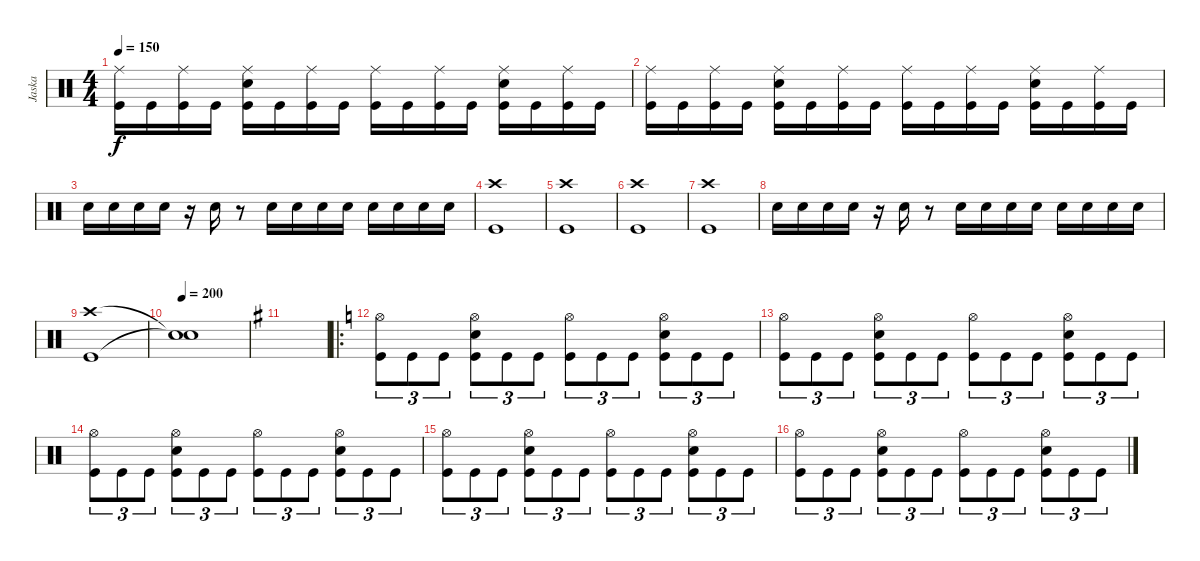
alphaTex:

\track ("Jaska" "Jaska") {instrument percussion}
\staff {score}
\articulation defaults
\ts (4 4)
\tempo 150
\clef neutral
\ks c
("Ride (middle)" "Kick (hit)").16{dy f} "Kick (hit)".16 ("Ride (middle)" "Kick (hit)").16 "Kick (hit)".16 ("Ride (middle)" "Snare (hit) 2" "Kick (hit)").16 "Kick (hit)".16 ("Ride (middle)" "Kick (hit)").16 "Kick (hit)".16 ("Ride (middle)" "Kick (hit)").16 "Kick (hit)".16 ("Ride (middle)" "Kick (hit)").16 "Kick (hit)".16 ("Ride (middle)" "Snare (hit) 2" "Kick (hit)").16 "Kick (hit)".16 ("Ride (middle)" "Kick (hit)").16 "Kick (hit)".16 |
("Ride (middle)" "Kick (hit)").16 "Kick (hit)".16 ("Ride (middle)" "Kick (hit)").16 "Kick (hit)".16 ("Ride (middle)" "Snare (hit) 2" "Kick (hit)").16 "Kick (hit)".16 ("Ride (middle)" "Kick (hit)").16 "Kick (hit)".16 ("Ride (middle)" "Kick (hit)").16 "Kick (hit)".16 ("Ride (middle)" "Kick (hit)").16 "Kick (hit)".16 ("Ride (middle)" "Snare (hit) 2" "Kick (hit)").16 "Kick (hit)".16 ("Ride (middle)" "Kick (hit)").16 "Kick (hit)".16 |
"Snare (hit) 2".16 "Snare (hit) 2".16 "Snare (hit) 2".16 "Snare (hit) 2".16 r.16 "Snare (hit) 2".16 r.8 "Snare (hit) 2".16 "Snare (hit) 2".16 "Snare (hit) 2".16 "Snare (hit) 2".16 "Snare (hit) 2".16 "Snare (hit) 2".16 "Snare (hit) 2".16 "Snare (hit) 2".16 |
("Crash high (hit)" "Kick (hit)").1 |
("Crash high (hit)" "Kick (hit)").1 |
("Crash high (hit)" "Kick (hit)").1 |
("Crash high (hit)" "Kick (hit)").1 |
"Snare (hit) 2".16 "Snare (hit) 2".16 "Snare (hit) 2".16 "Snare (hit) 2".16 r.16 "Snare (hit) 2".16 r.8 "Snare (hit) 2".16 "Snare (hit) 2".16 "Snare (hit) 2".16 "Snare (hit) 2".16 "Snare (hit) 2".16 "Snare (hit) 2".16 "Snare (hit) 2".16 "Snare (hit) 2".16 |
("Crash high (hit)" "Kick (hit)").1 |
\tempo 200
("Snare (hit)"{t} "Snare (hit)"{t}).1 |
\ks g
|
\ro
\ks c
("Hi-Hat (open)" "Kick (hit)").8{tu (3 2)} "Kick (hit)".8{tu (3 2)} "Kick (hit)".8{tu (3 2)} ("Hi-Hat (open)" "Snare (hit) 2" "Kick (hit)").8{tu (3 2)} "Kick (hit)".8{tu (3 2)} "Kick (hit)".8{tu (3 2)} ("Hi-Hat (open)" "Kick (hit)").8{tu (3 2)} "Kick (hit)".8{tu (3 2)} "Kick (hit)".8{tu (3 2)} ("Hi-Hat (open)" "Snare (hit) 2" "Kick (hit)").8{tu (3 2)} "Kick (hit)".8{tu (3 2)} "Kick (hit)".8{tu (3 2)} |
("Hi-Hat (open)" "Kick (hit)").8{tu (3 2)} "Kick (hit)".8{tu (3 2)} "Kick (hit)".8{tu (3 2)} ("Hi-Hat (open)" "Snare (hit) 2" "Kick (hit)").8{tu (3 2)} "Kick (hit)".8{tu (3 2)} "Kick (hit)".8{tu (3 2)} ("Hi-Hat (open)" "Kick (hit)").8{tu (3 2)} "Kick (hit)".8{tu (3 2)} "Kick (hit)".8{tu (3 2)} ("Hi-Hat (open)" "Snare (hit) 2" "Kick (hit)").8{tu (3 2)} "Kick (hit)".8{tu (3 2)} "Kick (hit)".8{tu (3 2)} |
("Hi-Hat (open)" "Kick (hit)").8{tu (3 2)} "Kick (hit)".8{tu (3 2)} "Kick (hit)".8{tu (3 2)} ("Hi-Hat (open)" "Snare (hit) 2" "Kick (hit)").8{tu (3 2)} "Kick (hit)".8{tu (3 2)} "Kick (hit)".8{tu (3 2)} ("Hi-Hat (open)" "Kick (hit)").8{tu (3 2)} "Kick (hit)".8{tu (3 2)} "Kick (hit)".8{tu (3 2)} ("Hi-Hat (open)" "Snare (hit) 2" "Kick (hit)").8{tu (3 2)} "Kick (hit)".8{tu (3 2)} "Kick (hit)".8{tu (3 2)} |
("Hi-Hat (open)" "Kick (hit)").8{tu (3 2)} "Kick (hit)".8{tu (3 2)} "Kick (hit)".8{tu (3 2)} ("Hi-Hat (open)" "Snare (hit) 2" "Kick (hit)").8{tu (3 2)} "Kick (hit)".8{tu (3 2)} "Kick (hit)".8{tu (3 2)} ("Hi-Hat (open)" "Kick (hit)").8{tu (3 2)} "Kick (hit)".8{tu (3 2)} "Kick (hit)".8{tu (3 2)} ("Hi-Hat (open)" "Snare (hit) 2" "Kick (hit)").8{tu (3 2)} "Kick (hit)".8{tu (3 2)} "Kick (hit)".8{tu (3 2)} |
("Hi-Hat (open)" "Kick (hit)").8{tu (3 2)} "Kick (hit)".8{tu (3 2)} "Kick (hit)".8{tu (3 2)} ("Hi-Hat (open)" "Snare (hit) 2" "Kick (hit)").8{tu (3 2)} "Kick (hit)".8{tu (3 2)} "Kick (hit)".8{tu (3 2)} ("Hi-Hat (open)" "Kick (hit)").8{tu (3 2)} "Kick (hit)".8{tu (3 2)} "Kick (hit)".8{tu (3 2)} ("Hi-Hat (open)" "Snare (hit) 2" "Kick (hit)").8{tu (3 2)} "Kick (hit)".8{tu (3 2)} "Kick (hit)".8{tu (3 2)}
